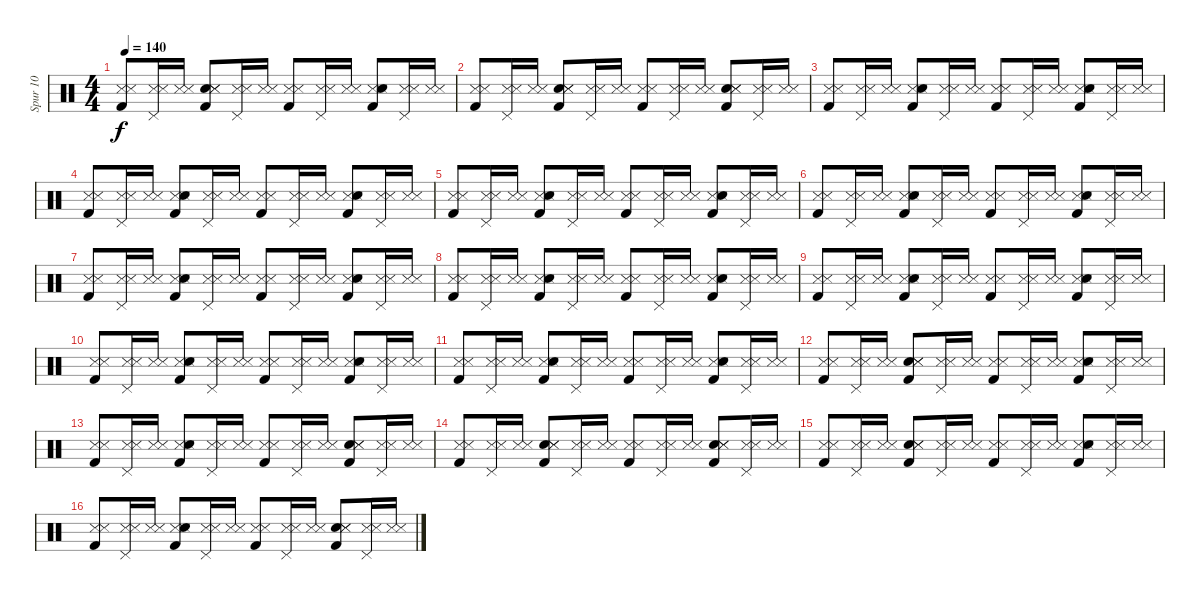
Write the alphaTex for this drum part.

\track ("Spur 10" "Spur 10") {instrument percussion}
\staff {score}
\articulation defaults
\ts (4 4)
\tempo 140
\clef neutral
\ks c
("Kick (hit) 2" "Snare (side stick) 3" "Metronome (hit)").8{dy f} ("Snare (side stick) 3" "Pedal Hi-Hat (hit)" "Metronome (hit)").16 ("Snare (side stick) 3" "Metronome (hit)").16 ("Snare (hit) 2" "Kick (hit) 2" "Snare (side stick) 3" "Metronome (hit)").8 ("Pedal Hi-Hat (hit)" "Snare (side stick) 3" "Metronome (hit)").16 ("Snare (side stick) 3" "Metronome (hit)").16 ("Snare (side stick) 3" "Kick (hit) 2" "Metronome (hit)").8 ("Pedal Hi-Hat (hit)" "Snare (side stick) 3" "Metronome (hit)").16 ("Snare (side stick) 3" "Metronome (hit)").16 ("Kick (hit) 2" "Snare (side stick) 3" "Snare (hit) 2" "Metronome (hit)").8 ("Pedal Hi-Hat (hit)" "Snare (side stick) 3" "Metronome (hit)").16 ("Snare (side stick) 3" "Metronome (hit)").16 |
("Kick (hit) 2" "Snare (side stick) 3" "Metronome (hit)").8 ("Pedal Hi-Hat (hit)" "Snare (side stick) 3" "Metronome (hit)").16 ("Snare (side stick) 3" "Metronome (hit)").16 ("Kick (hit) 2" "Snare (hit) 2" "Snare (side stick) 3" "Metronome (hit)").8 ("Pedal Hi-Hat (hit)" "Snare (side stick) 3" "Metronome (hit)").16 ("Snare (side stick) 3" "Metronome (hit)").16 ("Kick (hit) 2" "Snare (side stick) 3" "Metronome (hit)").8 ("Pedal Hi-Hat (hit)" "Snare (side stick) 3" "Metronome (hit)").16 ("Snare (side stick) 3" "Metronome (hit)").16 ("Snare (hit) 2" "Snare (side stick) 3" "Kick (hit) 2" "Metronome (hit)").8 ("Snare (side stick) 3" "Pedal Hi-Hat (hit)" "Metronome (hit)").16 ("Snare (side stick) 3" "Metronome (hit)").16 |
("Kick (hit) 2" "Snare (side stick) 3" "Metronome (hit)").8 ("Pedal Hi-Hat (hit)" "Snare (side stick) 3" "Metronome (hit)").16 ("Snare (side stick) 3" "Metronome (hit)").16 ("Snare (side stick) 3" "Kick (hit) 2" "Snare (hit) 2" "Metronome (hit)").8 ("Pedal Hi-Hat (hit)" "Snare (side stick) 3" "Metronome (hit)").16 ("Snare (side stick) 3" "Metronome (hit)").16 ("Snare (side stick) 3" "Kick (hit) 2" "Metronome (hit)").8 ("Pedal Hi-Hat (hit)" "Snare (side stick) 3" "Metronome (hit)").16 ("Snare (side stick) 3" "Metronome (hit)").16 ("Snare (side stick) 3" "Snare (hit) 2" "Kick (hit) 2" "Metronome (hit)").8 ("Pedal Hi-Hat (hit)" "Snare (side stick) 3" "Metronome (hit)").16 ("Snare (side stick) 3" "Metronome (hit)").16 |
("Snare (side stick) 3" "Kick (hit) 2" "Metronome (hit)").8 ("Pedal Hi-Hat (hit)" "Snare (side stick) 3" "Metronome (hit)").16 ("Snare (side stick) 3" "Metronome (hit)").16 ("Snare (side stick) 3" "Metronome (hit)" "Kick (hit) 2" "Snare (hit) 2").8 ("Pedal Hi-Hat (hit)" "Snare (side stick) 3" "Metronome (hit)").16 ("Snare (side stick) 3" "Metronome (hit)").16 ("Snare (side stick) 3" "Metronome (hit)" "Kick (hit) 2").8 ("Pedal Hi-Hat (hit)" "Snare (side stick) 3" "Metronome (hit)").16 ("Snare (side stick) 3" "Metronome (hit)").16 ("Snare (side stick) 3" "Metronome (hit)" "Kick (hit) 2" "Snare (hit) 2").8 ("Pedal Hi-Hat (hit)" "Snare (side stick) 3" "Metronome (hit)").16 ("Snare (side stick) 3" "Metronome (hit)").16 |
("Snare (side stick) 3" "Metronome (hit)" "Kick (hit) 2").8 ("Snare (side stick) 3" "Pedal Hi-Hat (hit)" "Metronome (hit)").16 ("Snare (side stick) 3" "Metronome (hit)").16 ("Snare (side stick) 3" "Metronome (hit)" "Kick (hit) 2" "Snare (hit) 2").8 ("Snare (side stick) 3" "Pedal Hi-Hat (hit)" "Metronome (hit)").16 ("Snare (side stick) 3" "Metronome (hit)").16 ("Snare (side stick) 3" "Metronome (hit)" "Kick (hit) 2").8 ("Snare (side stick) 3" "Pedal Hi-Hat (hit)" "Metronome (hit)").16 ("Snare (side stick) 3" "Metronome (hit)").16 ("Snare (side stick) 3" "Metronome (hit)" "Kick (hit) 2" "Snare (hit) 2").8 ("Pedal Hi-Hat (hit)" "Snare (side stick) 3" "Metronome (hit)").16 ("Snare (side stick) 3" "Metronome (hit)").16 |
("Snare (side stick) 3" "Metronome (hit)" "Kick (hit) 2").8 ("Pedal Hi-Hat (hit)" "Snare (side stick) 3" "Metronome (hit)").16 ("Snare (side stick) 3" "Metronome (hit)").16 ("Snare (side stick) 3" "Metronome (hit)" "Kick (hit) 2" "Snare (hit) 2").8 ("Pedal Hi-Hat (hit)" "Snare (side stick) 3" "Metronome (hit)").16 ("Snare (side stick) 3" "Metronome (hit)").16 ("Snare (side stick) 3" "Metronome (hit)" "Kick (hit) 2").8 ("Pedal Hi-Hat (hit)" "Snare (side stick) 3" "Metronome (hit)").16 ("Snare (side stick) 3" "Metronome (hit)").16 ("Snare (side stick) 3" "Metronome (hit)" "Kick (hit) 2" "Snare (hit) 2").8 ("Pedal Hi-Hat (hit)" "Snare (side stick) 3" "Metronome (hit)").16 ("Snare (side stick) 3" "Metronome (hit)").16 |
("Snare (side stick) 3" "Metronome (hit)" "Kick (hit) 2").8 ("Snare (side stick) 3" "Pedal Hi-Hat (hit)" "Metronome (hit)").16 ("Snare (side stick) 3" "Metronome (hit)").16 ("Snare (side stick) 3" "Metronome (hit)" "Kick (hit) 2" "Snare (hit) 2").8 ("Snare (side stick) 3" "Pedal Hi-Hat (hit)" "Metronome (hit)").16 ("Snare (side stick) 3" "Metronome (hit)").16 ("Snare (side stick) 3" "Metronome (hit)" "Kick (hit) 2").8 ("Pedal Hi-Hat (hit)" "Snare (side stick) 3" "Metronome (hit)").16 ("Snare (side stick) 3" "Metronome (hit)").16 ("Snare (side stick) 3" "Metronome (hit)" "Kick (hit) 2" "Snare (hit) 2").8 ("Pedal Hi-Hat (hit)" "Snare (side stick) 3" "Metronome (hit)").16 ("Snare (side stick) 3" "Metronome (hit)").16 |
("Snare (side stick) 3" "Metronome (hit)" "Kick (hit) 2").8 ("Snare (side stick) 3" "Pedal Hi-Hat (hit)" "Metronome (hit)").16 ("Snare (side stick) 3" "Metronome (hit)").16 ("Snare (side stick) 3" "Metronome (hit)" "Kick (hit) 2" "Snare (hit) 2").8 ("Pedal Hi-Hat (hit)" "Snare (side stick) 3" "Metronome (hit)").16 ("Snare (side stick) 3" "Metronome (hit)").16 ("Snare (side stick) 3" "Metronome (hit)" "Kick (hit) 2").8 ("Pedal Hi-Hat (hit)" "Snare (side stick) 3" "Metronome (hit)").16 ("Snare (side stick) 3" "Metronome (hit)").16 ("Snare (side stick) 3" "Metronome (hit)" "Kick (hit) 2" "Snare (hit) 2").8 ("Snare (side stick) 3" "Pedal Hi-Hat (hit)" "Metronome (hit)").16 ("Snare (side stick) 3" "Metronome (hit)").16 |
("Snare (side stick) 3" "Metronome (hit)" "Kick (hit) 2").8 ("Pedal Hi-Hat (hit)" "Snare (side stick) 3" "Metronome (hit)").16 ("Snare (side stick) 3" "Metronome (hit)").16 ("Snare (side stick) 3" "Metronome (hit)" "Kick (hit) 2" "Snare (hit) 2").8 ("Pedal Hi-Hat (hit)" "Snare (side stick) 3" "Metronome (hit)").16 ("Snare (side stick) 3" "Metronome (hit)").16 ("Snare (side stick) 3" "Metronome (hit)" "Kick (hit) 2").8 ("Pedal Hi-Hat (hit)" "Snare (side stick) 3" "Metronome (hit)").16 ("Snare (side stick) 3" "Metronome (hit)").16 ("Snare (side stick) 3" "Metronome (hit)" "Kick (hit) 2" "Snare (hit) 2").8 ("Snare (side stick) 3" "Pedal Hi-Hat (hit)" "Metronome (hit)").16 ("Snare (side stick) 3" "Metronome (hit)").16 |
("Snare (side stick) 3" "Metronome (hit)" "Kick (hit) 2").8 ("Snare (side stick) 3" "Pedal Hi-Hat (hit)" "Metronome (hit)").16 ("Snare (side stick) 3" "Metronome (hit)").16 ("Snare (side stick) 3" "Metronome (hit)" "Kick (hit) 2" "Snare (hit) 2").8 ("Pedal Hi-Hat (hit)" "Snare (side stick) 3" "Metronome (hit)").16 ("Snare (side stick) 3" "Metronome (hit)").16 ("Snare (side stick) 3" "Metronome (hit)" "Kick (hit) 2").8 ("Pedal Hi-Hat (hit)" "Snare (side stick) 3" "Metronome (hit)").16 ("Snare (side stick) 3" "Metronome (hit)").16 ("Snare (side stick) 3" "Metronome (hit)" "Kick (hit) 2" "Snare (hit) 2").8 ("Pedal Hi-Hat (hit)" "Snare (side stick) 3" "Metronome (hit)").16 ("Snare (side stick) 3" "Metronome (hit)").16 |
("Snare (side stick) 3" "Metronome (hit)" "Kick (hit) 2").8 ("Pedal Hi-Hat (hit)" "Snare (side stick) 3" "Metronome (hit)").16 ("Snare (side stick) 3" "Metronome (hit)").16 ("Snare (side stick) 3" "Metronome (hit)" "Kick (hit) 2" "Snare (hit) 2").8 ("Snare (side stick) 3" "Pedal Hi-Hat (hit)" "Metronome (hit)").16 ("Snare (side stick) 3" "Metronome (hit)").16 ("Snare (side stick) 3" "Metronome (hit)" "Kick (hit) 2").8 ("Snare (side stick) 3" "Pedal Hi-Hat (hit)" "Metronome (hit)").16 ("Snare (side stick) 3" "Metronome (hit)").16 ("Snare (side stick) 3" "Metronome (hit)" "Kick (hit) 2" "Snare (hit) 2").8 ("Snare (side stick) 3" "Pedal Hi-Hat (hit)" "Metronome (hit)").16 ("Snare (side stick) 3" "Metronome (hit)").16 |
("Snare (side stick) 3" "Metronome (hit)" "Kick (hit) 2").8 ("Pedal Hi-Hat (hit)" "Snare (side stick) 3" "Metronome (hit)").16 ("Snare (side stick) 3" "Metronome (hit)").16 ("Snare (hit) 2" "Kick (hit) 2" "Snare (side stick) 3" "Metronome (hit)").8 ("Pedal Hi-Hat (hit)" "Snare (side stick) 3" "Metronome (hit)").16 ("Snare (side stick) 3" "Metronome (hit)").16 ("Snare (side stick) 3" "Metronome (hit)" "Kick (hit) 2").8 ("Pedal Hi-Hat (hit)" "Snare (side stick) 3" "Metronome (hit)").16 ("Snare (side stick) 3" "Metronome (hit)").16 ("Snare (side stick) 3" "Metronome (hit)" "Kick (hit) 2" "Snare (hit) 2").8 ("Snare (side stick) 3" "Pedal Hi-Hat (hit)" "Metronome (hit)").16 ("Snare (side stick) 3" "Metronome (hit)").16 |
("Snare (side stick) 3" "Metronome (hit)" "Kick (hit) 2").8 ("Snare (side stick) 3" "Pedal Hi-Hat (hit)" "Metronome (hit)").16 ("Snare (side stick) 3" "Metronome (hit)").16 ("Snare (side stick) 3" "Metronome (hit)" "Kick (hit) 2" "Snare (hit) 2").8 ("Pedal Hi-Hat (hit)" "Snare (side stick) 3" "Metronome (hit)").16 ("Snare (side stick) 3" "Metronome (hit)").16 ("Snare (side stick) 3" "Metronome (hit)" "Kick (hit) 2").8 ("Pedal Hi-Hat (hit)" "Snare (side stick) 3" "Metronome (hit)").16 ("Snare (side stick) 3" "Metronome (hit)").16 ("Snare (hit) 2" "Snare (side stick) 3" "Metronome (hit)" "Kick (hit) 2").8 ("Snare (side stick) 3" "Pedal Hi-Hat (hit)" "Metronome (hit)").16 ("Snare (side stick) 3" "Metronome (hit)").16 |
("Snare (side stick) 3" "Metronome (hit)" "Kick (hit) 2").8 ("Snare (side stick) 3" "Pedal Hi-Hat (hit)" "Metronome (hit)").16 ("Snare (side stick) 3" "Metronome (hit)").16 ("Snare (hit) 2" "Snare (side stick) 3" "Metronome (hit)" "Kick (hit) 2").8 ("Pedal Hi-Hat (hit)" "Snare (side stick) 3" "Metronome (hit)").16 ("Snare (side stick) 3" "Metronome (hit)").16 ("Snare (side stick) 3" "Metronome (hit)" "Kick (hit) 2").8 ("Pedal Hi-Hat (hit)" "Snare (side stick) 3" "Metronome (hit)").16 ("Snare (side stick) 3" "Metronome (hit)").16 ("Snare (hit) 2" "Snare (side stick) 3" "Metronome (hit)" "Kick (hit) 2").8 ("Pedal Hi-Hat (hit)" "Snare (side stick) 3" "Metronome (hit)").16 ("Snare (side stick) 3" "Metronome (hit)").16 |
("Snare (side stick) 3" "Metronome (hit)" "Kick (hit) 2").8 ("Pedal Hi-Hat (hit)" "Snare (side stick) 3" "Metronome (hit)").16 ("Snare (side stick) 3" "Metronome (hit)").16 ("Snare (hit) 2" "Snare (side stick) 3" "Metronome (hit)" "Kick (hit) 2").8 ("Snare (side stick) 3" "Pedal Hi-Hat (hit)" "Metronome (hit)").16 ("Snare (side stick) 3" "Metronome (hit)").16 ("Snare (side stick) 3" "Metronome (hit)" "Kick (hit) 2").8 ("Snare (side stick) 3" "Pedal Hi-Hat (hit)" "Metronome (hit)").16 ("Snare (side stick) 3" "Metronome (hit)").16 ("Snare (side stick) 3" "Snare (hit) 2" "Metronome (hit)" "Kick (hit) 2").8 ("Pedal Hi-Hat (hit)" "Snare (side stick) 3" "Metronome (hit)").16 ("Snare (side stick) 3" "Metronome (hit)").16 |
("Snare (side stick) 3" "Metronome (hit)" "Kick (hit) 2").8 ("Pedal Hi-Hat (hit)" "Snare (side stick) 3" "Metronome (hit)").16 ("Snare (side stick) 3" "Metronome (hit)").16 ("Snare (side stick) 3" "Snare (hit) 2" "Metronome (hit)" "Kick (hit) 2").8 ("Snare (side stick) 3" "Pedal Hi-Hat (hit)" "Metronome (hit)").16 ("Snare (side stick) 3" "Metronome (hit)").16 ("Snare (side stick) 3" "Metronome (hit)" "Kick (hit) 2").8 ("Snare (side stick) 3" "Pedal Hi-Hat (hit)" "Metronome (hit)").16 ("Snare (side stick) 3" "Metronome (hit)").16 ("Snare (hit) 2" "Snare (side stick) 3" "Metronome (hit)" "Kick (hit) 2").8 ("Pedal Hi-Hat (hit)" "Snare (side stick) 3" "Metronome (hit)").16 ("Snare (side stick) 3" "Metronome (hit)").16
